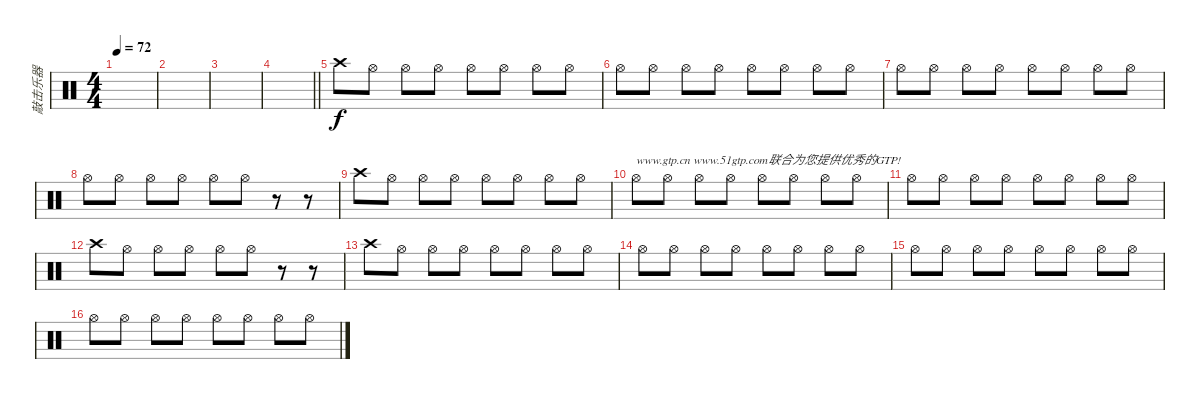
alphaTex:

\track ("敲击乐器" "敲击乐器") {instrument percussion}
\staff {score}
\articulation defaults
\ts (4 4)
\tempo 72
\clef neutral
\ks c
|
|
|
\barLineRight lightlight
|
"Crash high (hit)".8 "Hi-Hat (open)".8 "Hi-Hat (open)".8 "Hi-Hat (open)".8 "Hi-Hat (open)".8 "Hi-Hat (open)".8 "Hi-Hat (open)".8 "Hi-Hat (open)".8 |
"Hi-Hat (open)".8 "Hi-Hat (open)".8 "Hi-Hat (open)".8 "Hi-Hat (open)".8 "Hi-Hat (open)".8 "Hi-Hat (open)".8 "Hi-Hat (open)".8 "Hi-Hat (open)".8 |
"Hi-Hat (open)".8 "Hi-Hat (open)".8 "Hi-Hat (open)".8 "Hi-Hat (open)".8 "Hi-Hat (open)".8 "Hi-Hat (open)".8 "Hi-Hat (open)".8 "Hi-Hat (open)".8 |
"Hi-Hat (open)".8 "Hi-Hat (open)".8 "Hi-Hat (open)".8 "Hi-Hat (open)".8 "Hi-Hat (open)".8 "Hi-Hat (open)".8 r.8 r.8 |
"Crash high (hit)".8 "Hi-Hat (open)".8 "Hi-Hat (open)".8 "Hi-Hat (open)".8 "Hi-Hat (open)".8 "Hi-Hat (open)".8 "Hi-Hat (open)".8 "Hi-Hat (open)".8 |
"Hi-Hat (open)".8{txt "www.gtp.cn www.51gtp.com联合为您提供优秀的GTP!"} "Hi-Hat (open)".8 "Hi-Hat (open)".8 "Hi-Hat (open)".8 "Hi-Hat (open)".8 "Hi-Hat (open)".8 "Hi-Hat (open)".8 "Hi-Hat (open)".8 |
"Hi-Hat (open)".8 "Hi-Hat (open)".8 "Hi-Hat (open)".8 "Hi-Hat (open)".8 "Hi-Hat (open)".8 "Hi-Hat (open)".8 "Hi-Hat (open)".8 "Hi-Hat (open)".8 |
"Crash high (hit)".8 "Hi-Hat (open)".8 "Hi-Hat (open)".8 "Hi-Hat (open)".8 "Hi-Hat (open)".8 "Hi-Hat (open)".8 r.8 r.8 |
"Crash high (hit)".8 "Hi-Hat (open)".8 "Hi-Hat (open)".8 "Hi-Hat (open)".8 "Hi-Hat (open)".8 "Hi-Hat (open)".8 "Hi-Hat (open)".8 "Hi-Hat (open)".8 |
"Hi-Hat (open)".8 "Hi-Hat (open)".8 "Hi-Hat (open)".8 "Hi-Hat (open)".8 "Hi-Hat (open)".8 "Hi-Hat (open)".8 "Hi-Hat (open)".8 "Hi-Hat (open)".8 |
"Hi-Hat (open)".8 "Hi-Hat (open)".8 "Hi-Hat (open)".8 "Hi-Hat (open)".8 "Hi-Hat (open)".8 "Hi-Hat (open)".8 "Hi-Hat (open)".8 "Hi-Hat (open)".8 |
"Hi-Hat (open)".8 "Hi-Hat (open)".8 "Hi-Hat (open)".8 "Hi-Hat (open)".8 "Hi-Hat (open)".8 "Hi-Hat (open)".8 "Hi-Hat (open)".8 "Hi-Hat (open)".8
